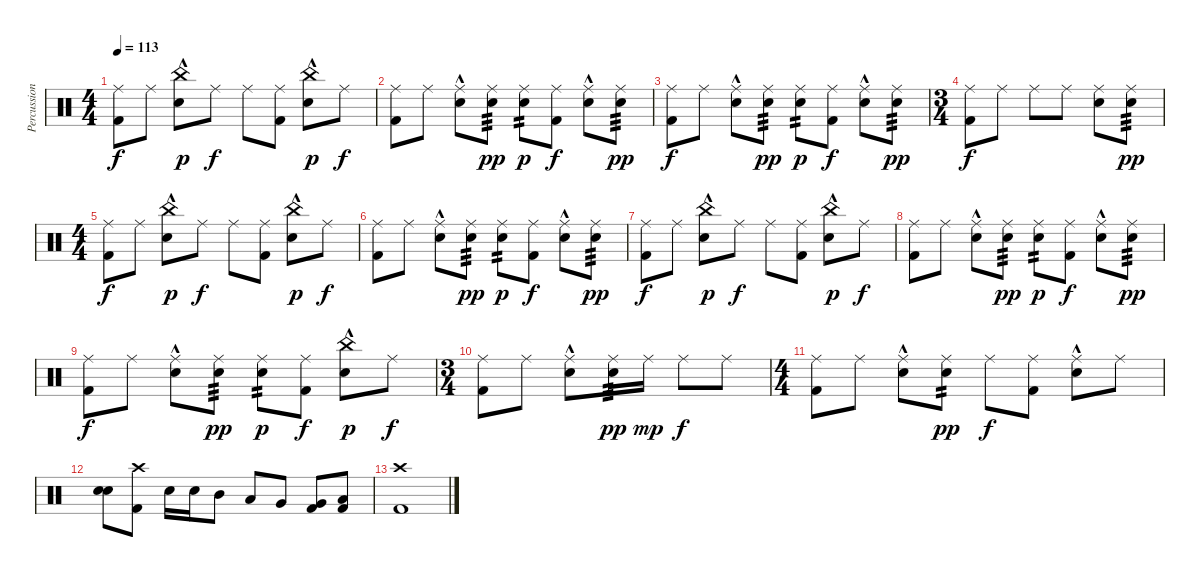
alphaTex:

\track ("Percussion" "Percussion") {instrument percussion}
\staff {score}
\articulation defaults
\ts (4 4)
\tempo 113
\clef neutral
\ks c
("Ride (middle)" "Kick (hit) 2").8{dy f} "Ride (middle)".8 ("China (hit)" "Snare (hit) 2"{hac}).8{dy p} "Ride (middle)".8{dy f} "Ride (middle)".8 ("Ride (middle)" "Kick (hit) 2").8 ("China (hit)" "Snare (hit) 2"{hac}).8{dy p} "Ride (middle)".8{dy f} |
("Ride (middle)" "Kick (hit) 2").8 "Ride (middle)".8 ("Ride (middle)" "Snare (hit) 2"{hac}).8 ("Ride (middle)" "Snare (hit) 2").8{tp 3 dy pp} ("Ride (middle)" "Snare (hit) 2").8{tp 2 dy p} ("Ride (middle)" "Kick (hit) 2").8{dy f} ("Ride (middle)" "Snare (hit) 2"{hac}).8 ("Ride (middle)" "Snare (hit) 2").8{tp 3 dy pp} |
("Ride (middle)" "Kick (hit) 2").8{dy f} "Ride (middle)".8 ("Ride (middle)" "Snare (hit) 2"{hac}).8 ("Ride (middle)" "Snare (hit) 2").8{tp 3 dy pp} ("Ride (middle)" "Snare (hit) 2").8{tp 2 dy p} ("Ride (middle)" "Kick (hit) 2").8{dy f} ("Ride (middle)" "Snare (hit) 2"{hac}).8 ("Ride (middle)" "Snare (hit) 2").8{tp 3 dy pp} |
\ts (3 4)
("Ride (middle)" "Kick (hit) 2").8{dy f} "Ride (middle)".8 "Ride (middle)".8 "Ride (middle)".8 ("Ride (middle)" "Snare (hit) 2").8 ("Ride (middle)" "Snare (hit) 2").8{tp 3 dy pp} |
\ts (4 4)
("Ride (middle)" "Kick (hit) 2").8{dy f} "Ride (middle)".8 ("China (hit)" "Snare (hit) 2"{hac}).8{dy p} "Ride (middle)".8{dy f} "Ride (middle)".8 ("Ride (middle)" "Kick (hit) 2").8 ("China (hit)" "Snare (hit) 2"{hac}).8{dy p} "Ride (middle)".8{dy f} |
("Ride (middle)" "Kick (hit) 2").8 "Ride (middle)".8 ("Ride (middle)" "Snare (hit) 2"{hac}).8 ("Ride (middle)" "Snare (hit) 2").8{tp 3 dy pp} ("Ride (middle)" "Snare (hit) 2").8{tp 2 dy p} ("Ride (middle)" "Kick (hit) 2").8{dy f} ("Ride (middle)" "Snare (hit) 2"{hac}).8 ("Ride (middle)" "Snare (hit) 2").8{tp 3 dy pp} |
("Ride (middle)" "Kick (hit) 2").8{dy f} "Ride (middle)".8 ("China (hit)" "Snare (hit) 2"{hac}).8{dy p} "Ride (middle)".8{dy f} "Ride (middle)".8 ("Ride (middle)" "Kick (hit) 2").8 ("China (hit)" "Snare (hit) 2"{hac}).8{dy p} "Ride (middle)".8{dy f} |
("Ride (middle)" "Kick (hit) 2").8 "Ride (middle)".8 ("Ride (middle)" "Snare (hit) 2"{hac}).8 ("Ride (middle)" "Snare (hit) 2").8{tp 3 dy pp} ("Ride (middle)" "Snare (hit) 2").8{tp 2 dy p} ("Ride (middle)" "Kick (hit) 2").8{dy f} ("Ride (middle)" "Snare (hit) 2"{hac}).8 ("Ride (middle)" "Snare (hit) 2").8{tp 3 dy pp} |
("Ride (middle)" "Kick (hit) 2").8{dy f} "Ride (middle)".8 ("Ride (middle)" "Snare (hit) 2"{hac}).8 ("Ride (middle)" "Snare (hit) 2").8{tp 3 dy pp} ("Ride (middle)" "Snare (hit) 2").8{tp 2 dy p} ("Ride (middle)" "Kick (hit) 2").8{dy f} ("China (hit)" "Snare (hit) 2"{hac}).8{dy p} "Ride (middle)".8{dy f} |
\ts (3 4)
("Ride (middle)" "Kick (hit) 2").8 "Ride (middle)".8 ("Ride (middle)" "Snare (hit) 2"{hac}).8 ("Ride (middle)" "Snare (hit) 2").16{tp 3 dy pp} "Ride (middle)".16{dy mp} "Ride (middle)".8{dy f} "Ride (middle)".8 |
\ts (4 4)
("Ride (middle)" "Kick (hit) 2").8 "Ride (middle)".8 ("Ride (middle)" "Snare (hit) 2"{hac}).8 ("Ride (middle)" "Snare (hit) 2").8{tp 2 dy pp} "Ride (middle)".8{dy f} ("Ride (middle)" "Kick (hit) 2").8 ("Ride (middle)" "Snare (hit) 2"{hac}).8 "Ride (middle)".8 |
("Snare (hit) 2" "Snare (hit) 2").8{bd 120} ("Crash high (hit)" "Kick (hit) 2").8 "Snare (hit) 2".16 "Snare (hit) 2".16 "Mid Tom (hit)".8 "Low Tom (hit)".8 "Very Low Tom (hit)".8 ("Very Low Tom (hit)" "Kick (hit) 2").8 ("Low Floor Tom (hit)" "Kick (hit) 2").8 |
("Crash high (hit)" "Kick (hit) 2").1
